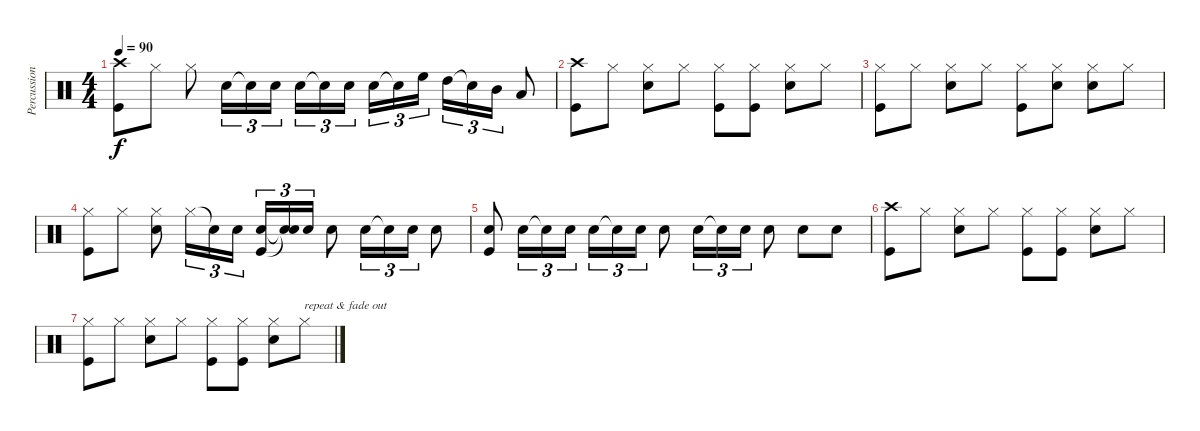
\track ("Percussion" "Percussion") {instrument percussion}
\staff {score}
\articulation defaults
\ts (4 4)
\tempo 90
\clef neutral
\ks c
("Crash high (hit)" "Kick (hit)").8{dy f} "Hi-Hat (closed)".8 "Hi-Hat (closed)".8 "Snare (hit) 2".16{tu (3 2)} "Snare (hit)"{t}.16{tu (3 2)} "Snare (hit) 2".16{tu (3 2)} "Snare (hit) 2".16{tu (3 2)} "Snare (hit)"{t}.16{tu (3 2)} "Snare (hit) 2".16{tu (3 2)} "Snare (hit) 2".16{tu (3 2)} "Snare (hit)"{t}.16{tu (3 2)} "High Floor Tom (hit)".16{tu (3 2)} "High Tom (hit)".16{tu (3 2)} "Snare (hit)"{t}.16{tu (3 2)} "Mid Tom (hit)".16{tu (3 2)} "Low Tom (hit)".8 |
("Crash high (hit)" "Kick (hit)").8 "Hi-Hat (closed)".8 ("Hi-Hat (closed)" "Snare (hit) 2").8 "Hi-Hat (closed)".8 ("Hi-Hat (closed)" "Kick (hit)").8 ("Hi-Hat (closed)" "Kick (hit)").8 ("Hi-Hat (closed)" "Snare (hit) 2").8 "Hi-Hat (closed)".8 |
("Hi-Hat (closed)" "Kick (hit)").8 "Hi-Hat (closed)".8 ("Hi-Hat (closed)" "Snare (hit) 2").8 "Hi-Hat (closed)".8 ("Hi-Hat (closed)" "Kick (hit)").8 ("Hi-Hat (closed)" "Snare (hit) 2").8 ("Hi-Hat (closed)" "Snare (hit) 2").8 "Hi-Hat (closed)".8 |
("Hi-Hat (closed)" "Kick (hit)").8 "Hi-Hat (closed)".8 ("Hi-Hat (closed)" "Snare (hit) 2").8 "Hi-Hat (closed)".16{tu (3 2)} "Snare (hit)"{t}.16{tu (3 2)} "Snare (hit) 2".16{tu (3 2)} ("Snare (hit) 2" "Kick (hit)").16{tu (3 2)} ("Snare (hit)"{t} "Snare (hit)"{t}).16{tu (3 2)} "Snare (hit) 2".16{tu (3 2)} "Snare (hit) 2".8 "Snare (hit) 2".16{tu (3 2)} "Snare (hit)"{t}.16{tu (3 2)} "Snare (hit) 2".16{tu (3 2)} "Snare (hit) 2".8 |
("Snare (hit) 2" "Kick (hit)").8 "Snare (hit) 2".16{tu (3 2)} "Snare (hit)"{t}.16{tu (3 2)} "Snare (hit) 2".16{tu (3 2)} "Snare (hit) 2".16{tu (3 2)} "Snare (hit)"{t}.16{tu (3 2)} "Snare (hit) 2".16{tu (3 2)} "Snare (hit) 2".8 "Snare (hit) 2".16{tu (3 2)} "Snare (hit)"{t}.16{tu (3 2)} "Snare (hit) 2".16{tu (3 2)} "Snare (hit) 2".8 "Snare (hit) 2".8 "Snare (hit) 2".8 |
("Crash high (hit)" "Kick (hit)").8 "Hi-Hat (closed)".8 ("Hi-Hat (closed)" "Snare (hit) 2").8 "Hi-Hat (closed)".8 ("Hi-Hat (closed)" "Kick (hit)").8 ("Hi-Hat (closed)" "Kick (hit)").8 ("Hi-Hat (closed)" "Snare (hit) 2").8 "Hi-Hat (closed)".8 |
("Hi-Hat (closed)" "Kick (hit)").8 "Hi-Hat (closed)".8 ("Hi-Hat (closed)" "Snare (hit) 2").8 "Hi-Hat (closed)".8 ("Hi-Hat (closed)" "Kick (hit)").8 ("Hi-Hat (closed)" "Kick (hit)").8 ("Hi-Hat (closed)" "Snare (hit) 2").8 "Hi-Hat (closed)".8{txt "repeat & fade out"}
